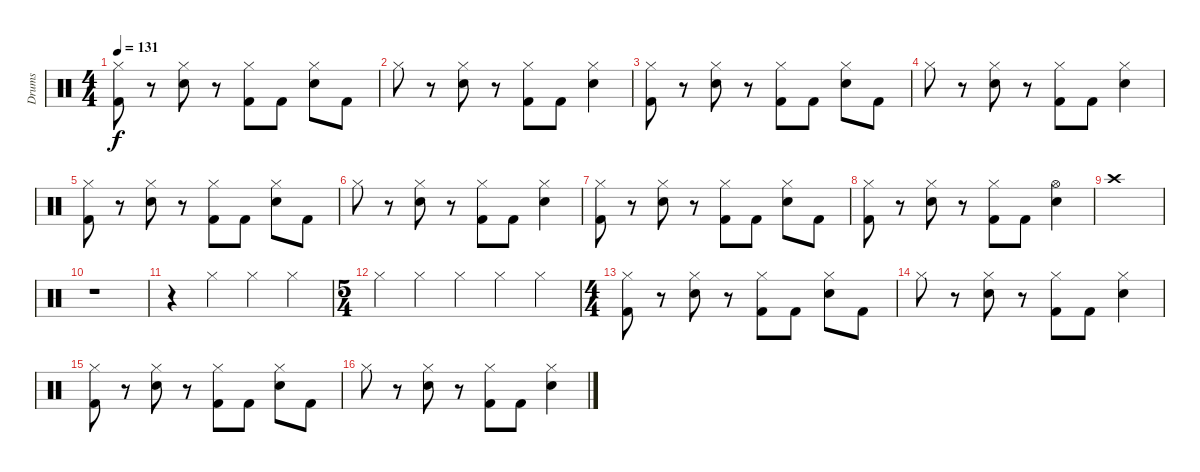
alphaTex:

\track ("Drums" "Drums") {instrument percussion}
\staff {score}
\articulation defaults
\ts (4 4)
\tempo 131
\clef neutral
\ks c
("Hi-Hat (closed)" "Kick (hit) 2").8{dy f} r.8 ("Hi-Hat (closed)" "Snare (hit) 2").8 r.8 ("Hi-Hat (closed)" "Kick (hit) 2").8 "Kick (hit) 2".8 ("Hi-Hat (closed)" "Snare (hit) 2").8 "Kick (hit) 2".8 |
"Hi-Hat (closed)".8 r.8 ("Hi-Hat (closed)" "Snare (hit) 2").8 r.8 ("Hi-Hat (closed)" "Kick (hit) 2").8 "Kick (hit) 2".8 ("Hi-Hat (closed)" "Snare (hit) 2").4 |
("Hi-Hat (closed)" "Kick (hit) 2").8 r.8 ("Hi-Hat (closed)" "Snare (hit) 2").8 r.8 ("Hi-Hat (closed)" "Kick (hit) 2").8 "Kick (hit) 2".8 ("Hi-Hat (closed)" "Snare (hit) 2").8 "Kick (hit) 2".8 |
"Hi-Hat (closed)".8 r.8 ("Hi-Hat (closed)" "Snare (hit) 2").8 r.8 ("Hi-Hat (closed)" "Kick (hit) 2").8 "Kick (hit) 2".8 ("Hi-Hat (closed)" "Snare (hit) 2").4 |
("Hi-Hat (closed)" "Kick (hit) 2").8 r.8 ("Hi-Hat (closed)" "Snare (hit) 2").8 r.8 ("Hi-Hat (closed)" "Kick (hit) 2").8 "Kick (hit) 2".8 ("Hi-Hat (closed)" "Snare (hit) 2").8 "Kick (hit) 2".8 |
"Hi-Hat (closed)".8 r.8 ("Hi-Hat (closed)" "Snare (hit) 2").8 r.8 ("Hi-Hat (closed)" "Kick (hit) 2").8 "Kick (hit) 2".8 ("Hi-Hat (closed)" "Snare (hit) 2").4 |
("Hi-Hat (closed)" "Kick (hit) 2").8 r.8 ("Hi-Hat (closed)" "Snare (hit) 2").8 r.8 ("Hi-Hat (closed)" "Kick (hit) 2").8 "Kick (hit) 2".8 ("Hi-Hat (closed)" "Snare (hit) 2").8 "Kick (hit) 2".8 |
("Hi-Hat (closed)" "Kick (hit) 2").8 r.8 ("Hi-Hat (closed)" "Snare (hit) 2").8 r.8 ("Hi-Hat (closed)" "Kick (hit) 2").8 "Kick (hit) 2".8 ("Hi-Hat (open)" "Snare (hit) 2").4 |
"Crash high (hit)".1 |
r.1 |
r.4 "Hi-Hat (closed)".4 "Hi-Hat (closed)".4 "Hi-Hat (closed)".4 |
\ts (5 4)
"Hi-Hat (closed)".4 "Hi-Hat (closed)".4 "Hi-Hat (closed)".4 "Hi-Hat (closed)".4 "Hi-Hat (closed)".4 |
\ts (4 4)
("Hi-Hat (closed)" "Kick (hit) 2").8 r.8 ("Hi-Hat (closed)" "Snare (hit) 2").8 r.8 ("Hi-Hat (closed)" "Kick (hit) 2").8 "Kick (hit) 2".8 ("Hi-Hat (closed)" "Snare (hit) 2").8 "Kick (hit) 2".8 |
"Hi-Hat (closed)".8 r.8 ("Hi-Hat (closed)" "Snare (hit) 2").8 r.8 ("Hi-Hat (closed)" "Kick (hit) 2").8 "Kick (hit) 2".8 ("Hi-Hat (closed)" "Snare (hit) 2").4 |
("Hi-Hat (closed)" "Kick (hit) 2").8 r.8 ("Hi-Hat (closed)" "Snare (hit) 2").8 r.8 ("Hi-Hat (closed)" "Kick (hit) 2").8 "Kick (hit) 2".8 ("Hi-Hat (closed)" "Snare (hit) 2").8 "Kick (hit) 2".8 |
"Hi-Hat (closed)".8 r.8 ("Hi-Hat (closed)" "Snare (hit) 2").8 r.8 ("Hi-Hat (closed)" "Kick (hit) 2").8 "Kick (hit) 2".8 ("Hi-Hat (closed)" "Snare (hit) 2").4
